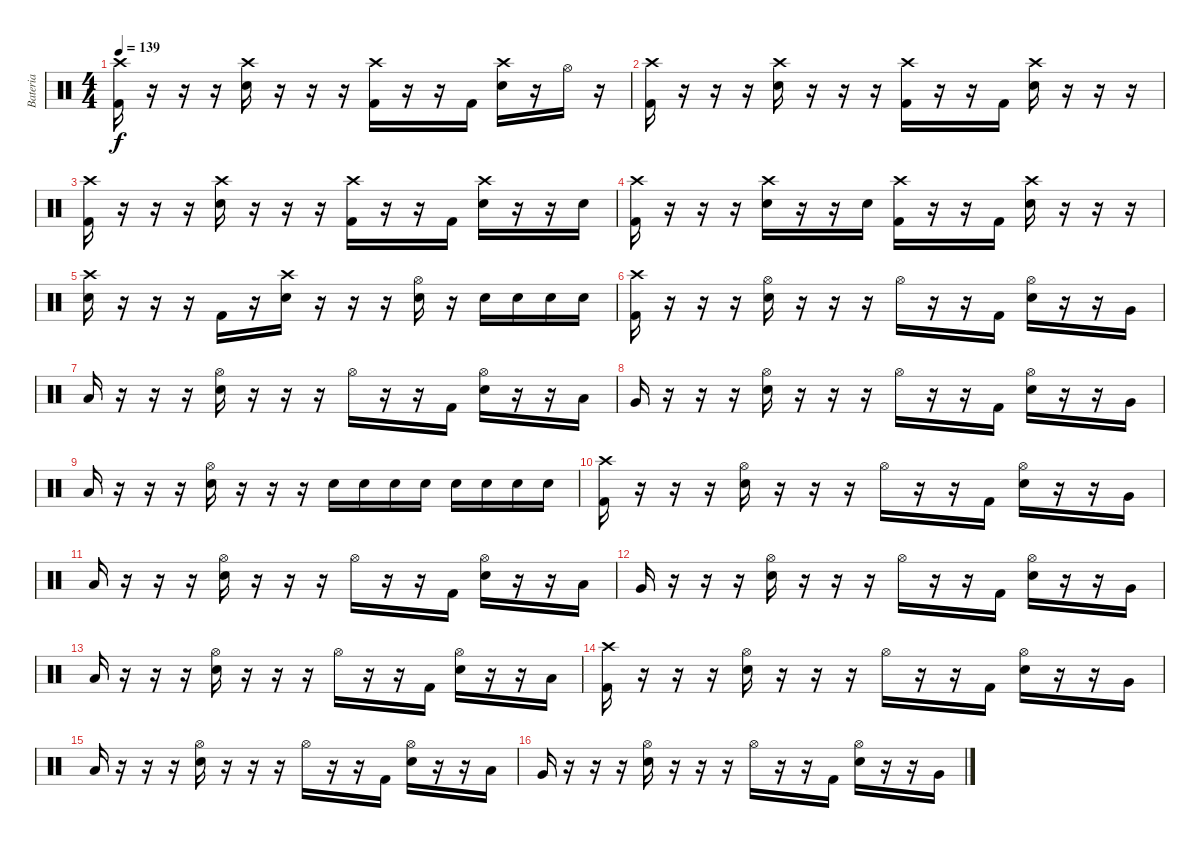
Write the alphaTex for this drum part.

\track ("Bateria" "Bateria") {instrument percussion}
\staff {score}
\articulation defaults
\ts (4 4)
\tempo 139
\clef neutral
\ks c
("Crash high (hit)" "Kick (hit) 2").16{dy f} r.16 r.16 r.16 ("Crash high (hit)" "Electric Snare (hit)").16 r.16 r.16 r.16 ("Crash high (hit)" "Kick (hit) 2").16 r.16 r.16 "Kick (hit) 2".16 ("Crash high (hit)" "Electric Snare (hit)").16 r.16 "Hi-Hat (open)".16 r.16 |
("Crash high (hit)" "Kick (hit) 2").16 r.16 r.16 r.16 ("Crash high (hit)" "Electric Snare (hit)").16 r.16 r.16 r.16 ("Crash high (hit)" "Kick (hit) 2").16 r.16 r.16 "Kick (hit) 2".16 ("Crash high (hit)" "Electric Snare (hit)").16 r.16 r.16 r.16 |
("Crash high (hit)" "Kick (hit) 2").16 r.16 r.16 r.16 ("Crash high (hit)" "Electric Snare (hit)").16 r.16 r.16 r.16 ("Crash high (hit)" "Kick (hit) 2").16 r.16 r.16 "Kick (hit) 2".16 ("Crash high (hit)" "Electric Snare (hit)").16 r.16 r.16 "Electric Snare (hit)".16 |
("Crash high (hit)" "Kick (hit) 2").16 r.16 r.16 r.16 ("Crash high (hit)" "Electric Snare (hit)").16 r.16 r.16 "Electric Snare (hit)".16 ("Crash high (hit)" "Kick (hit) 2").16 r.16 r.16 "Kick (hit) 2".16 ("Crash high (hit)" "Electric Snare (hit)").16 r.16 r.16 r.16 |
("Crash high (hit)" "Electric Snare (hit)").16 r.16 r.16 r.16 "Kick (hit) 2".16 r.16 ("Crash high (hit)" "Electric Snare (hit)").16 r.16 r.16 r.16 ("Hi-Hat (open)" "Electric Snare (hit)").16 r.16 "Electric Snare (hit)".16 "Electric Snare (hit)".16 "Electric Snare (hit)".16 "Electric Snare (hit)".16 |
("Crash high (hit)" "Kick (hit) 2").16 r.16 r.16 r.16 ("Hi-Hat (open)" "Electric Snare (hit)").16 r.16 r.16 r.16 "Hi-Hat (open)".16 r.16 r.16 "Kick (hit) 2".16 ("Hi-Hat (open)" "Electric Snare (hit)").16 r.16 r.16 "Very Low Tom (hit)".16 |
"Low Tom (hit)".16 r.16 r.16 r.16 ("Hi-Hat (open)" "Electric Snare (hit)").16 r.16 r.16 r.16 "Hi-Hat (open)".16 r.16 r.16 "Kick (hit) 2".16 ("Hi-Hat (open)" "Electric Snare (hit)").16 r.16 r.16 "Low Tom (hit)".16 |
"Very Low Tom (hit)".16 r.16 r.16 r.16 ("Hi-Hat (open)" "Electric Snare (hit)").16 r.16 r.16 r.16 "Hi-Hat (open)".16 r.16 r.16 "Kick (hit) 2".16 ("Hi-Hat (open)" "Electric Snare (hit)").16 r.16 r.16 "Very Low Tom (hit)".16 |
"Low Tom (hit)".16 r.16 r.16 r.16 ("Hi-Hat (open)" "Electric Snare (hit)").16 r.16 r.16 r.16 "Electric Snare (hit)".16 "Electric Snare (hit)".16 "Electric Snare (hit)".16 "Electric Snare (hit)".16 "Electric Snare (hit)".16 "Electric Snare (hit)".16 "Electric Snare (hit)".16 "Electric Snare (hit)".16 |
("Crash high (hit)" "Kick (hit) 2").16 r.16 r.16 r.16 ("Hi-Hat (open)" "Electric Snare (hit)").16 r.16 r.16 r.16 "Hi-Hat (open)".16 r.16 r.16 "Kick (hit) 2".16 ("Hi-Hat (open)" "Electric Snare (hit)").16 r.16 r.16 "Very Low Tom (hit)".16 |
"Low Tom (hit)".16 r.16 r.16 r.16 ("Hi-Hat (open)" "Electric Snare (hit)").16 r.16 r.16 r.16 "Hi-Hat (open)".16 r.16 r.16 "Kick (hit) 2".16 ("Hi-Hat (open)" "Electric Snare (hit)").16 r.16 r.16 "Low Tom (hit)".16 |
"Very Low Tom (hit)".16 r.16 r.16 r.16 ("Hi-Hat (open)" "Electric Snare (hit)").16 r.16 r.16 r.16 "Hi-Hat (open)".16 r.16 r.16 "Kick (hit) 2".16 ("Hi-Hat (open)" "Electric Snare (hit)").16 r.16 r.16 "Very Low Tom (hit)".16 |
"Low Tom (hit)".16 r.16 r.16 r.16 ("Hi-Hat (open)" "Electric Snare (hit)").16 r.16 r.16 r.16 "Hi-Hat (open)".16 r.16 r.16 "Kick (hit) 2".16 ("Hi-Hat (open)" "Electric Snare (hit)").16 r.16 r.16 "Low Tom (hit)".16 |
("Crash high (hit)" "Kick (hit) 2").16 r.16 r.16 r.16 ("Hi-Hat (open)" "Electric Snare (hit)").16 r.16 r.16 r.16 "Hi-Hat (open)".16 r.16 r.16 "Kick (hit) 2".16 ("Hi-Hat (open)" "Electric Snare (hit)").16 r.16 r.16 "Very Low Tom (hit)".16 |
"Low Tom (hit)".16 r.16 r.16 r.16 ("Hi-Hat (open)" "Electric Snare (hit)").16 r.16 r.16 r.16 "Hi-Hat (open)".16 r.16 r.16 "Kick (hit) 2".16 ("Hi-Hat (open)" "Electric Snare (hit)").16 r.16 r.16 "Low Tom (hit)".16 |
"Very Low Tom (hit)".16 r.16 r.16 r.16 ("Hi-Hat (open)" "Electric Snare (hit)").16 r.16 r.16 r.16 "Hi-Hat (open)".16 r.16 r.16 "Kick (hit) 2".16 ("Hi-Hat (open)" "Electric Snare (hit)").16 r.16 r.16 "Very Low Tom (hit)".16
